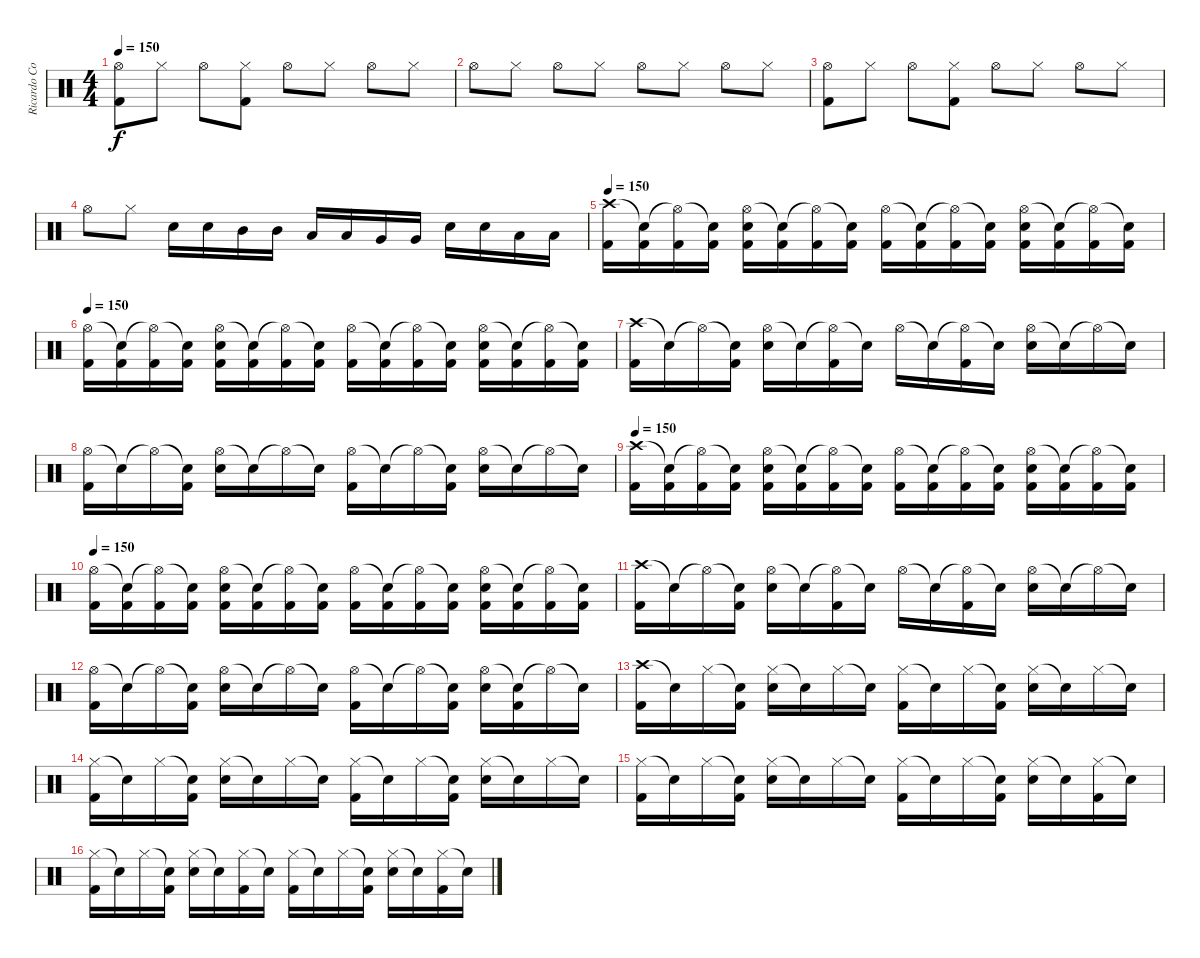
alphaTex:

\track ("Ricardo Confessori" "Ricardo Co") {instrument percussion}
\staff {score}
\articulation defaults
\ts (4 4)
\tempo 150
\clef neutral
\ks c
("Hi-Hat (open)" "Kick (hit) 2").8{dy f} "Hi-Hat (closed)".8 "Hi-Hat (open)".8 ("Hi-Hat (closed)" "Kick (hit) 2").8 "Hi-Hat (open)".8 "Hi-Hat (closed)".8 "Hi-Hat (open)".8 "Hi-Hat (closed)".8 |
"Hi-Hat (open)".8 "Hi-Hat (closed)".8 "Hi-Hat (open)".8 "Hi-Hat (closed)".8 "Hi-Hat (open)".8 "Hi-Hat (closed)".8 "Hi-Hat (open)".8 "Hi-Hat (closed)".8 |
("Hi-Hat (open)" "Kick (hit) 2").8 "Hi-Hat (closed)".8 "Hi-Hat (open)".8 ("Hi-Hat (closed)" "Kick (hit) 2").8 "Hi-Hat (open)".8 "Hi-Hat (closed)".8 "Hi-Hat (open)".8 "Hi-Hat (closed)".8 |
"Hi-Hat (open)".8 "Hi-Hat (closed)".8 "Electric Snare (hit)".16 "Electric Snare (hit)".16 "Mid Tom (hit)".16 "Mid Tom (hit)".16 "Low Tom (hit)".16 "Low Tom (hit)".16 "Very Low Tom (hit)".16 "Very Low Tom (hit)".16 "Electric Snare (hit)".16 "Electric Snare (hit)".16 "Low Tom (hit)".16 "Low Tom (hit)".16 |
\tempo 150
("Crash high (hit)" "Kick (hit) 2").16 ("Snare (hit)"{t} "Kick (hit) 2").16 ("Hi-Hat (open)"{t} "Kick (hit) 2").16 ("Snare (hit)"{t} "Kick (hit) 2").16 ("Hi-Hat (open)" "Electric Snare (hit)" "Kick (hit) 2").16 ("Snare (hit)"{t} "Kick (hit) 2").16 ("Hi-Hat (open)"{t} "Kick (hit) 2").16 ("Snare (hit)"{t} "Kick (hit) 2").16 ("Hi-Hat (open)" "Kick (hit) 2").16 ("Snare (hit)"{t} "Kick (hit) 2").16 ("Hi-Hat (open)"{t} "Kick (hit) 2").16 ("Snare (hit)"{t} "Kick (hit) 2").16 ("Hi-Hat (open)" "Electric Snare (hit)" "Kick (hit) 2").16 ("Snare (hit)"{t} "Kick (hit) 2").16 ("Hi-Hat (open)"{t} "Kick (hit) 2").16 ("Snare (hit)"{t} "Kick (hit) 2").16 |
\tempo 150
("Hi-Hat (open)" "Kick (hit) 2").16 ("Snare (hit)"{t} "Kick (hit) 2").16 ("Hi-Hat (open)"{t} "Kick (hit) 2").16 ("Snare (hit)"{t} "Kick (hit) 2").16 ("Hi-Hat (open)" "Electric Snare (hit)" "Kick (hit) 2").16 ("Snare (hit)"{t} "Kick (hit) 2").16 ("Hi-Hat (open)"{t} "Kick (hit) 2").16 ("Snare (hit)"{t} "Kick (hit) 2").16 ("Hi-Hat (open)" "Kick (hit) 2").16 ("Snare (hit)"{t} "Kick (hit) 2").16 ("Hi-Hat (open)"{t} "Kick (hit) 2").16 ("Snare (hit)"{t} "Kick (hit) 2").16 ("Hi-Hat (open)" "Electric Snare (hit)" "Kick (hit) 2").16 ("Snare (hit)"{t} "Kick (hit) 2").16 ("Hi-Hat (open)"{t} "Kick (hit) 2").16 ("Snare (hit)"{t} "Kick (hit) 2").16 |
("Crash high (hit)" "Kick (hit) 2").16 "Snare (hit)"{t}.16 "Hi-Hat (open)"{t}.16 ("Snare (hit)"{t} "Kick (hit) 2").16 ("Hi-Hat (open)" "Electric Snare (hit)").16 "Snare (hit)"{t}.16 ("Hi-Hat (open)"{t} "Kick (hit) 2").16 "Snare (hit)"{t}.16 "Hi-Hat (open)".16 "Snare (hit)"{t}.16 ("Hi-Hat (open)"{t} "Kick (hit) 2").16 "Snare (hit)"{t}.16 ("Hi-Hat (open)" "Electric Snare (hit)").16 "Snare (hit)"{t}.16 "Hi-Hat (open)"{t}.16 "Snare (hit)"{t}.16 |
("Hi-Hat (open)" "Kick (hit) 2").16 "Snare (hit)"{t}.16 "Hi-Hat (open)"{t}.16 ("Snare (hit)"{t} "Kick (hit) 2").16 ("Hi-Hat (open)" "Electric Snare (hit)").16 "Snare (hit)"{t}.16 "Hi-Hat (open)"{t}.16 "Snare (hit)"{t}.16 ("Hi-Hat (open)" "Kick (hit) 2").16 "Snare (hit)"{t}.16 "Hi-Hat (open)"{t}.16 ("Snare (hit)"{t} "Kick (hit) 2").16 ("Hi-Hat (open)" "Electric Snare (hit)").16 "Snare (hit)"{t}.16 "Hi-Hat (open)"{t}.16 "Snare (hit)"{t}.16 |
\tempo 150
("Crash high (hit)" "Kick (hit) 2").16 ("Snare (hit)"{t} "Kick (hit) 2").16 ("Hi-Hat (open)"{t} "Kick (hit) 2").16 ("Snare (hit)"{t} "Kick (hit) 2").16 ("Hi-Hat (open)" "Electric Snare (hit)" "Kick (hit) 2").16 ("Snare (hit)"{t} "Kick (hit) 2").16 ("Hi-Hat (open)"{t} "Kick (hit) 2").16 ("Snare (hit)"{t} "Kick (hit) 2").16 ("Hi-Hat (open)" "Kick (hit) 2").16 ("Snare (hit)"{t} "Kick (hit) 2").16 ("Hi-Hat (open)"{t} "Kick (hit) 2").16 ("Snare (hit)"{t} "Kick (hit) 2").16 ("Hi-Hat (open)" "Electric Snare (hit)" "Kick (hit) 2").16 ("Snare (hit)"{t} "Kick (hit) 2").16 ("Hi-Hat (open)"{t} "Kick (hit) 2").16 ("Snare (hit)"{t} "Kick (hit) 2").16 |
\tempo 150
("Hi-Hat (open)" "Kick (hit) 2").16 ("Snare (hit)"{t} "Kick (hit) 2").16 ("Hi-Hat (open)"{t} "Kick (hit) 2").16 ("Snare (hit)"{t} "Kick (hit) 2").16 ("Hi-Hat (open)" "Electric Snare (hit)" "Kick (hit) 2").16 ("Snare (hit)"{t} "Kick (hit) 2").16 ("Hi-Hat (open)"{t} "Kick (hit) 2").16 ("Snare (hit)"{t} "Kick (hit) 2").16 ("Hi-Hat (open)" "Kick (hit) 2").16 ("Snare (hit)"{t} "Kick (hit) 2").16 ("Hi-Hat (open)"{t} "Kick (hit) 2").16 ("Snare (hit)"{t} "Kick (hit) 2").16 ("Hi-Hat (open)" "Electric Snare (hit)" "Kick (hit) 2").16 ("Snare (hit)"{t} "Kick (hit) 2").16 ("Hi-Hat (open)"{t} "Kick (hit) 2").16 ("Snare (hit)"{t} "Kick (hit) 2").16 |
("Crash high (hit)" "Kick (hit) 2").16 "Snare (hit)"{t}.16 "Hi-Hat (open)"{t}.16 ("Snare (hit)"{t} "Kick (hit) 2").16 ("Hi-Hat (open)" "Electric Snare (hit)").16 "Snare (hit)"{t}.16 ("Hi-Hat (open)"{t} "Kick (hit) 2").16 "Snare (hit)"{t}.16 "Hi-Hat (open)".16 "Snare (hit)"{t}.16 ("Hi-Hat (open)"{t} "Kick (hit) 2").16 "Snare (hit)"{t}.16 ("Hi-Hat (open)" "Electric Snare (hit)").16 "Snare (hit)"{t}.16 "Hi-Hat (open)"{t}.16 "Snare (hit)"{t}.16 |
("Hi-Hat (open)" "Kick (hit) 2").16 "Snare (hit)"{t}.16 "Hi-Hat (open)"{t}.16 ("Snare (hit)"{t} "Kick (hit) 2").16 ("Hi-Hat (open)" "Electric Snare (hit)").16 "Snare (hit)"{t}.16 "Hi-Hat (open)"{t}.16 "Snare (hit)"{t}.16 ("Hi-Hat (open)" "Kick (hit) 2").16 "Snare (hit)"{t}.16 "Hi-Hat (open)"{t}.16 ("Snare (hit)"{t} "Kick (hit) 2").16 ("Hi-Hat (open)" "Electric Snare (hit)").16 ("Snare (hit)"{t} "Kick (hit) 2").16 "Hi-Hat (open)"{t}.16 "Snare (hit)"{t}.16 |
("Crash high (hit)" "Kick (hit) 2").16 "Snare (hit)"{t}.16 "Hi-Hat (closed)".16 ("Snare (hit)"{t} "Kick (hit) 2").16 ("Hi-Hat (closed)" "Electric Snare (hit)").16 "Snare (hit)"{t}.16 "Hi-Hat (closed)".16 "Snare (hit)"{t}.16 ("Hi-Hat (closed)" "Kick (hit) 2").16 "Snare (hit)"{t}.16 "Hi-Hat (closed)".16 ("Snare (hit)"{t} "Kick (hit) 2").16 ("Hi-Hat (closed)" "Electric Snare (hit)").16 "Snare (hit)"{t}.16 "Hi-Hat (closed)".16 "Snare (hit)"{t}.16 |
("Hi-Hat (closed)" "Kick (hit) 2").16 "Snare (hit)"{t}.16 "Hi-Hat (closed)".16 ("Snare (hit)"{t} "Kick (hit) 2").16 ("Hi-Hat (closed)" "Electric Snare (hit)").16 "Snare (hit)"{t}.16 "Hi-Hat (closed)".16 "Snare (hit)"{t}.16 ("Hi-Hat (closed)" "Kick (hit) 2").16 "Snare (hit)"{t}.16 "Hi-Hat (closed)".16 ("Snare (hit)"{t} "Kick (hit) 2").16 ("Hi-Hat (closed)" "Electric Snare (hit)").16 "Snare (hit)"{t}.16 "Hi-Hat (closed)".16 "Snare (hit)"{t}.16 |
("Hi-Hat (closed)" "Kick (hit) 2").16 "Snare (hit)"{t}.16 "Hi-Hat (closed)".16 ("Snare (hit)"{t} "Kick (hit) 2").16 ("Hi-Hat (closed)" "Electric Snare (hit)").16 "Snare (hit)"{t}.16 "Hi-Hat (closed)".16 "Snare (hit)"{t}.16 ("Hi-Hat (closed)" "Kick (hit) 2").16 "Snare (hit)"{t}.16 "Hi-Hat (closed)".16 ("Snare (hit)"{t} "Kick (hit) 2").16 ("Hi-Hat (closed)" "Electric Snare (hit)").16 "Snare (hit)"{t}.16 ("Hi-Hat (closed)" "Kick (hit) 2").16 "Snare (hit)"{t}.16 |
("Hi-Hat (closed)" "Kick (hit) 2").16 "Snare (hit)"{t}.16 "Hi-Hat (closed)".16 ("Snare (hit)"{t} "Kick (hit) 2").16 ("Hi-Hat (closed)" "Electric Snare (hit)").16 "Snare (hit)"{t}.16 ("Hi-Hat (closed)" "Kick (hit) 2").16 "Snare (hit)"{t}.16 ("Hi-Hat (closed)" "Kick (hit) 2").16 "Snare (hit)"{t}.16 "Hi-Hat (closed)".16 ("Snare (hit)"{t} "Kick (hit) 2").16 ("Hi-Hat (closed)" "Electric Snare (hit)").16 "Snare (hit)"{t}.16 ("Hi-Hat (closed)" "Kick (hit) 2").16 "Snare (hit)"{t}.16
